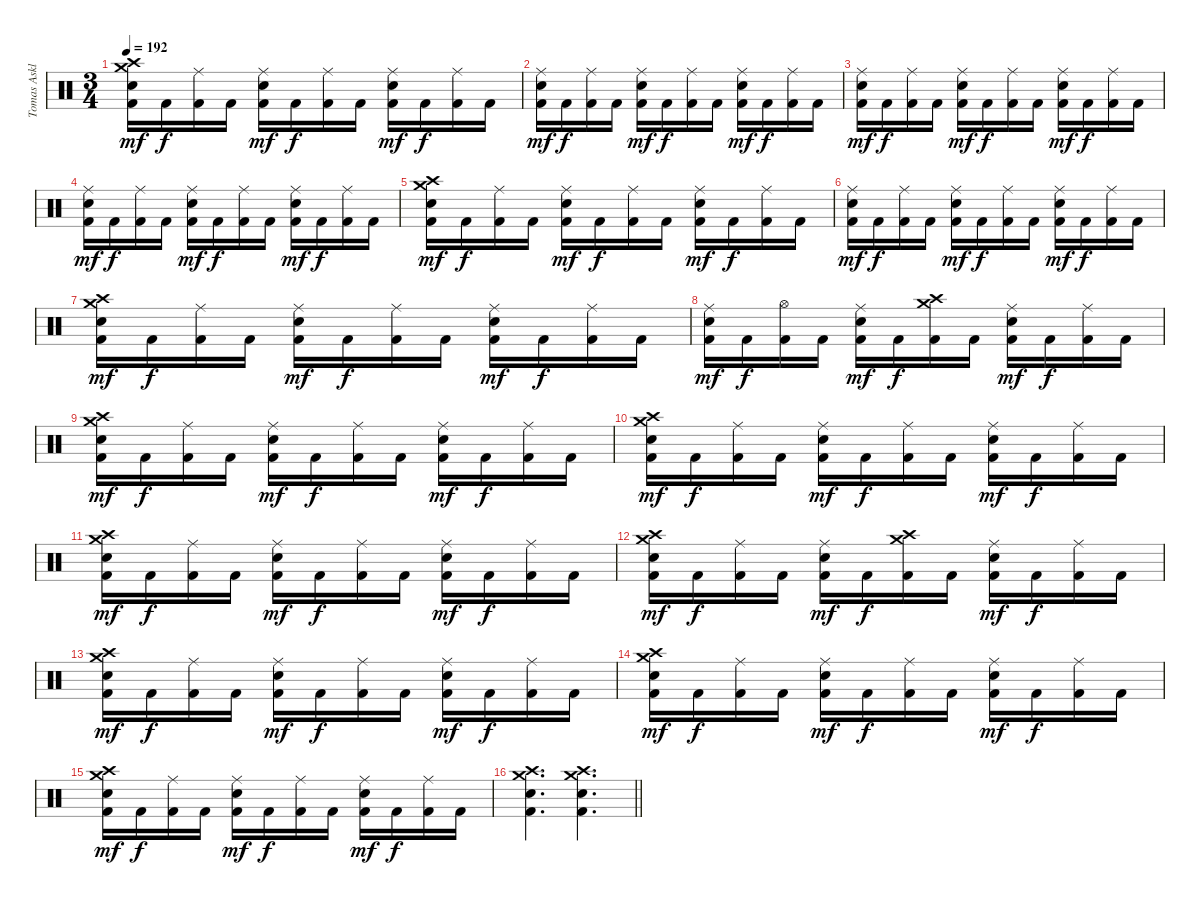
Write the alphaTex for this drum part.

\track ("Tomas Asklund" "Tomas Askl") {instrument percussion}
\staff {score}
\articulation defaults
\ts (3 4)
\tempo 192
\clef neutral
\ks c
("Crash medium (hit)" "Crash high (hit)" "Snare (hit) 2" "Kick (hit) 2").16{dy mf} "Kick (hit) 2".16{dy f} ("Ride (middle)" "Kick (hit) 2").16 "Kick (hit) 2".16 ("Ride (middle)" "Snare (hit) 2" "Kick (hit) 2").16{dy mf} "Kick (hit) 2".16{dy f} ("Ride (middle)" "Kick (hit) 2").16 "Kick (hit) 2".16 ("Ride (middle)" "Snare (hit) 2" "Kick (hit) 2").16{dy mf} "Kick (hit) 2".16{dy f} ("Ride (middle)" "Kick (hit) 2").16 "Kick (hit) 2".16 |
("Ride (middle)" "Snare (hit) 2" "Kick (hit) 2").16{dy mf} "Kick (hit) 2".16{dy f} ("Ride (middle)" "Kick (hit) 2").16 "Kick (hit) 2".16 ("Ride (middle)" "Snare (hit) 2" "Kick (hit) 2").16{dy mf} "Kick (hit) 2".16{dy f} ("Ride (middle)" "Kick (hit) 2").16 "Kick (hit) 2".16 ("Ride (middle)" "Snare (hit) 2" "Kick (hit) 2").16{dy mf} "Kick (hit) 2".16{dy f} ("Ride (middle)" "Kick (hit) 2").16 "Kick (hit) 2".16 |
("Ride (middle)" "Snare (hit) 2" "Kick (hit) 2").16{dy mf} "Kick (hit) 2".16{dy f} ("Ride (middle)" "Kick (hit) 2").16 "Kick (hit) 2".16 ("Ride (middle)" "Snare (hit) 2" "Kick (hit) 2").16{dy mf} "Kick (hit) 2".16{dy f} ("Ride (middle)" "Kick (hit) 2").16 "Kick (hit) 2".16 ("Ride (middle)" "Snare (hit) 2" "Kick (hit) 2").16{dy mf} "Kick (hit) 2".16{dy f} ("Ride (middle)" "Kick (hit) 2").16 "Kick (hit) 2".16 |
("Ride (middle)" "Snare (hit) 2" "Kick (hit) 2").16{dy mf} "Kick (hit) 2".16{dy f} ("Ride (middle)" "Kick (hit) 2").16 "Kick (hit) 2".16 ("Ride (middle)" "Snare (hit) 2" "Kick (hit) 2").16{dy mf} "Kick (hit) 2".16{dy f} ("Ride (middle)" "Kick (hit) 2").16 "Kick (hit) 2".16 ("Ride (middle)" "Snare (hit) 2" "Kick (hit) 2").16{dy mf} "Kick (hit) 2".16{dy f} ("Ride (middle)" "Kick (hit) 2").16 "Kick (hit) 2".16 |
("Crash medium (hit)" "Crash high (hit)" "Snare (hit) 2" "Kick (hit) 2").16{dy mf} "Kick (hit) 2".16{dy f} ("Ride (middle)" "Kick (hit) 2").16 "Kick (hit) 2".16 ("Ride (middle)" "Snare (hit) 2" "Kick (hit) 2").16{dy mf} "Kick (hit) 2".16{dy f} ("Ride (middle)" "Kick (hit) 2").16 "Kick (hit) 2".16 ("Ride (middle)" "Snare (hit) 2" "Kick (hit) 2").16{dy mf} "Kick (hit) 2".16{dy f} ("Ride (middle)" "Kick (hit) 2").16 "Kick (hit) 2".16 |
("Ride (middle)" "Snare (hit) 2" "Kick (hit) 2").16{dy mf} "Kick (hit) 2".16{dy f} ("Ride (middle)" "Kick (hit) 2").16 "Kick (hit) 2".16 ("Ride (middle)" "Snare (hit) 2" "Kick (hit) 2").16{dy mf} "Kick (hit) 2".16{dy f} ("Ride (middle)" "Kick (hit) 2").16 "Kick (hit) 2".16 ("Ride (middle)" "Snare (hit) 2" "Kick (hit) 2").16{dy mf} "Kick (hit) 2".16{dy f} ("Ride (middle)" "Kick (hit) 2").16 "Kick (hit) 2".16 |
("Crash medium (hit)" "Crash high (hit)" "Snare (hit) 2" "Kick (hit) 2").16{dy mf} "Kick (hit) 2".16{dy f} ("Ride (middle)" "Kick (hit) 2").16 "Kick (hit) 2".16 ("Ride (middle)" "Snare (hit) 2" "Kick (hit) 2").16{dy mf} "Kick (hit) 2".16{dy f} ("Ride (middle)" "Kick (hit) 2").16 "Kick (hit) 2".16 ("Ride (middle)" "Snare (hit) 2" "Kick (hit) 2").16{dy mf} "Kick (hit) 2".16{dy f} ("Ride (middle)" "Kick (hit) 2").16 "Kick (hit) 2".16 |
("Ride (middle)" "Snare (hit) 2" "Kick (hit) 2").16{dy mf} "Kick (hit) 2".16{dy f} ("Hi-Hat (open)" "Kick (hit) 2").16 "Kick (hit) 2".16 ("Ride (middle)" "Snare (hit) 2" "Kick (hit) 2").16{dy mf} "Kick (hit) 2".16{dy f} ("Crash medium (hit)" "Crash high (hit)" "Kick (hit) 2").16 "Kick (hit) 2".16 ("Ride (middle)" "Snare (hit) 2" "Kick (hit) 2").16{dy mf} "Kick (hit) 2".16{dy f} ("Ride (middle)" "Kick (hit) 2").16 "Kick (hit) 2".16 |
("Crash medium (hit)" "Crash high (hit)" "Snare (hit) 2" "Kick (hit) 2").16{dy mf} "Kick (hit) 2".16{dy f} ("Ride (middle)" "Kick (hit) 2").16 "Kick (hit) 2".16 ("Ride (middle)" "Snare (hit) 2" "Kick (hit) 2").16{dy mf} "Kick (hit) 2".16{dy f} ("Ride (middle)" "Kick (hit) 2").16 "Kick (hit) 2".16 ("Ride (middle)" "Snare (hit) 2" "Kick (hit) 2").16{dy mf} "Kick (hit) 2".16{dy f} ("Ride (middle)" "Kick (hit) 2").16 "Kick (hit) 2".16 |
("Crash medium (hit)" "Crash high (hit)" "Snare (hit) 2" "Kick (hit) 2").16{dy mf} "Kick (hit) 2".16{dy f} ("Ride (middle)" "Kick (hit) 2").16 "Kick (hit) 2".16 ("Ride (middle)" "Snare (hit) 2" "Kick (hit) 2").16{dy mf} "Kick (hit) 2".16{dy f} ("Ride (middle)" "Kick (hit) 2").16 "Kick (hit) 2".16 ("Ride (middle)" "Snare (hit) 2" "Kick (hit) 2").16{dy mf} "Kick (hit) 2".16{dy f} ("Ride (middle)" "Kick (hit) 2").16 "Kick (hit) 2".16 |
("Crash medium (hit)" "Crash high (hit)" "Snare (hit) 2" "Kick (hit) 2").16{dy mf} "Kick (hit) 2".16{dy f} ("Ride (middle)" "Kick (hit) 2").16 "Kick (hit) 2".16 ("Ride (middle)" "Snare (hit) 2" "Kick (hit) 2").16{dy mf} "Kick (hit) 2".16{dy f} ("Ride (middle)" "Kick (hit) 2").16 "Kick (hit) 2".16 ("Ride (middle)" "Snare (hit) 2" "Kick (hit) 2").16{dy mf} "Kick (hit) 2".16{dy f} ("Ride (middle)" "Kick (hit) 2").16 "Kick (hit) 2".16 |
("Crash medium (hit)" "Crash high (hit)" "Snare (hit) 2" "Kick (hit) 2").16{dy mf} "Kick (hit) 2".16{dy f} ("Ride (middle)" "Kick (hit) 2").16 "Kick (hit) 2".16 ("Ride (middle)" "Snare (hit) 2" "Kick (hit) 2").16{dy mf} "Kick (hit) 2".16{dy f} ("Crash medium (hit)" "Crash high (hit)" "Kick (hit) 2").16 "Kick (hit) 2".16 ("Ride (middle)" "Snare (hit) 2" "Kick (hit) 2").16{dy mf} "Kick (hit) 2".16{dy f} ("Ride (middle)" "Kick (hit) 2").16 "Kick (hit) 2".16 |
("Crash medium (hit)" "Crash high (hit)" "Snare (hit) 2" "Kick (hit) 2").16{dy mf} "Kick (hit) 2".16{dy f} ("Ride (middle)" "Kick (hit) 2").16 "Kick (hit) 2".16 ("Ride (middle)" "Snare (hit) 2" "Kick (hit) 2").16{dy mf} "Kick (hit) 2".16{dy f} ("Ride (middle)" "Kick (hit) 2").16 "Kick (hit) 2".16 ("Ride (middle)" "Snare (hit) 2" "Kick (hit) 2").16{dy mf} "Kick (hit) 2".16{dy f} ("Ride (middle)" "Kick (hit) 2").16 "Kick (hit) 2".16 |
("Crash medium (hit)" "Crash high (hit)" "Snare (hit) 2" "Kick (hit) 2").16{dy mf} "Kick (hit) 2".16{dy f} ("Ride (middle)" "Kick (hit) 2").16 "Kick (hit) 2".16 ("Ride (middle)" "Snare (hit) 2" "Kick (hit) 2").16{dy mf} "Kick (hit) 2".16{dy f} ("Ride (middle)" "Kick (hit) 2").16 "Kick (hit) 2".16 ("Ride (middle)" "Snare (hit) 2" "Kick (hit) 2").16{dy mf} "Kick (hit) 2".16{dy f} ("Ride (middle)" "Kick (hit) 2").16 "Kick (hit) 2".16 |
("Crash medium (hit)" "Crash high (hit)" "Snare (hit) 2" "Kick (hit) 2").16{dy mf} "Kick (hit) 2".16{dy f} ("Ride (middle)" "Kick (hit) 2").16 "Kick (hit) 2".16 ("Ride (middle)" "Snare (hit) 2" "Kick (hit) 2").16{dy mf} "Kick (hit) 2".16{dy f} ("Ride (middle)" "Kick (hit) 2").16 "Kick (hit) 2".16 ("Ride (middle)" "Snare (hit) 2" "Kick (hit) 2").16{dy mf} "Kick (hit) 2".16{dy f} ("Ride (middle)" "Kick (hit) 2").16 "Kick (hit) 2".16 |
\barLineRight lightlight
("Crash medium (hit)" "Crash high (hit)" "Snare (hit) 2" "Kick (hit) 2").4{d} ("Crash medium (hit)" "Crash high (hit)" "Snare (hit) 2" "Kick (hit) 2").4{d}
